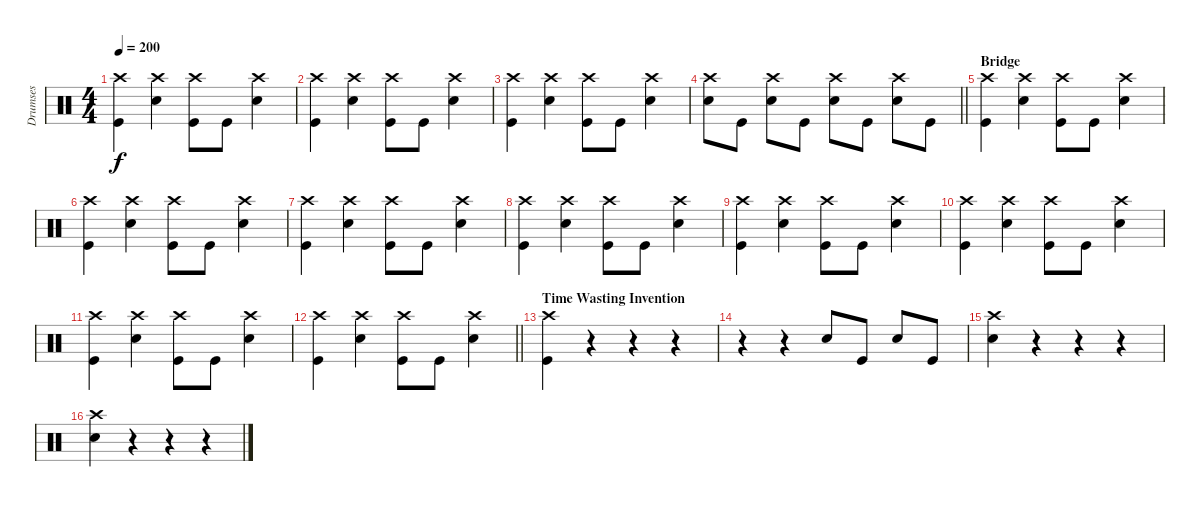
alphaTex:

\track ("Drumses" "Drumses") {instrument percussion}
\staff {score}
\articulation defaults
\ts (4 4)
\tempo 200
\clef neutral
\ks c
("Crash high (hit)" "Kick (hit)").4{dy f} ("Crash high (hit)" "Snare (hit) 2").4 ("Crash high (hit)" "Kick (hit)").8 "Kick (hit)".8 ("Crash high (hit)" "Snare (hit) 2").4 |
("Crash high (hit)" "Kick (hit)").4 ("Crash high (hit)" "Snare (hit) 2").4 ("Crash high (hit)" "Kick (hit)").8 "Kick (hit)".8 ("Crash high (hit)" "Snare (hit) 2").4 |
("Crash high (hit)" "Kick (hit)").4 ("Crash high (hit)" "Snare (hit) 2").4 ("Crash high (hit)" "Kick (hit)").8 "Kick (hit)".8 ("Crash high (hit)" "Snare (hit) 2").4 |
\barLineRight lightlight
("Crash high (hit)" "Snare (hit) 2").8 "Kick (hit)".8 ("Crash high (hit)" "Snare (hit) 2").8 "Kick (hit)".8 ("Crash high (hit)" "Snare (hit) 2").8 "Kick (hit)".8 ("Crash high (hit)" "Snare (hit) 2").8 "Kick (hit)".8 |
\section ("" "Bridge")
("Crash high (hit)" "Kick (hit)").4 ("Crash high (hit)" "Snare (hit) 2").4 ("Crash high (hit)" "Kick (hit)").8 "Kick (hit)".8 ("Crash high (hit)" "Snare (hit) 2").4 |
("Crash high (hit)" "Kick (hit)").4 ("Crash high (hit)" "Snare (hit) 2").4 ("Crash high (hit)" "Kick (hit)").8 "Kick (hit)".8 ("Crash high (hit)" "Snare (hit) 2").4 |
("Crash high (hit)" "Kick (hit)").4 ("Crash high (hit)" "Snare (hit) 2").4 ("Crash high (hit)" "Kick (hit)").8 "Kick (hit)".8 ("Crash high (hit)" "Snare (hit) 2").4 |
("Crash high (hit)" "Kick (hit)").4 ("Crash high (hit)" "Snare (hit) 2").4 ("Crash high (hit)" "Kick (hit)").8 "Kick (hit)".8 ("Crash high (hit)" "Snare (hit) 2").4 |
("Crash high (hit)" "Kick (hit)").4 ("Crash high (hit)" "Snare (hit) 2").4 ("Crash high (hit)" "Kick (hit)").8 "Kick (hit)".8 ("Crash high (hit)" "Snare (hit) 2").4 |
("Crash high (hit)" "Kick (hit)").4 ("Crash high (hit)" "Snare (hit) 2").4 ("Crash high (hit)" "Kick (hit)").8 "Kick (hit)".8 ("Crash high (hit)" "Snare (hit) 2").4 |
("Crash high (hit)" "Kick (hit)").4 ("Crash high (hit)" "Snare (hit) 2").4 ("Crash high (hit)" "Kick (hit)").8 "Kick (hit)".8 ("Crash high (hit)" "Snare (hit) 2").4 |
\barLineRight lightlight
("Crash high (hit)" "Kick (hit)").4 ("Crash high (hit)" "Snare (hit) 2").4 ("Crash high (hit)" "Kick (hit)").8 "Kick (hit)".8 ("Crash high (hit)" "Snare (hit) 2").4 |
\section ("" "Time Wasting Invention")
("Crash high (hit)" "Kick (hit)").4 r.4 r.4 r.4 |
r.4 r.4 "Snare (hit) 2".8 "Kick (hit)".8 "Snare (hit) 2".8 "Kick (hit)".8 |
("Crash high (hit)" "Snare (hit) 2").4 r.4 r.4 r.4 |
("Crash high (hit)" "Snare (hit) 2").4 r.4 r.4 r.4
